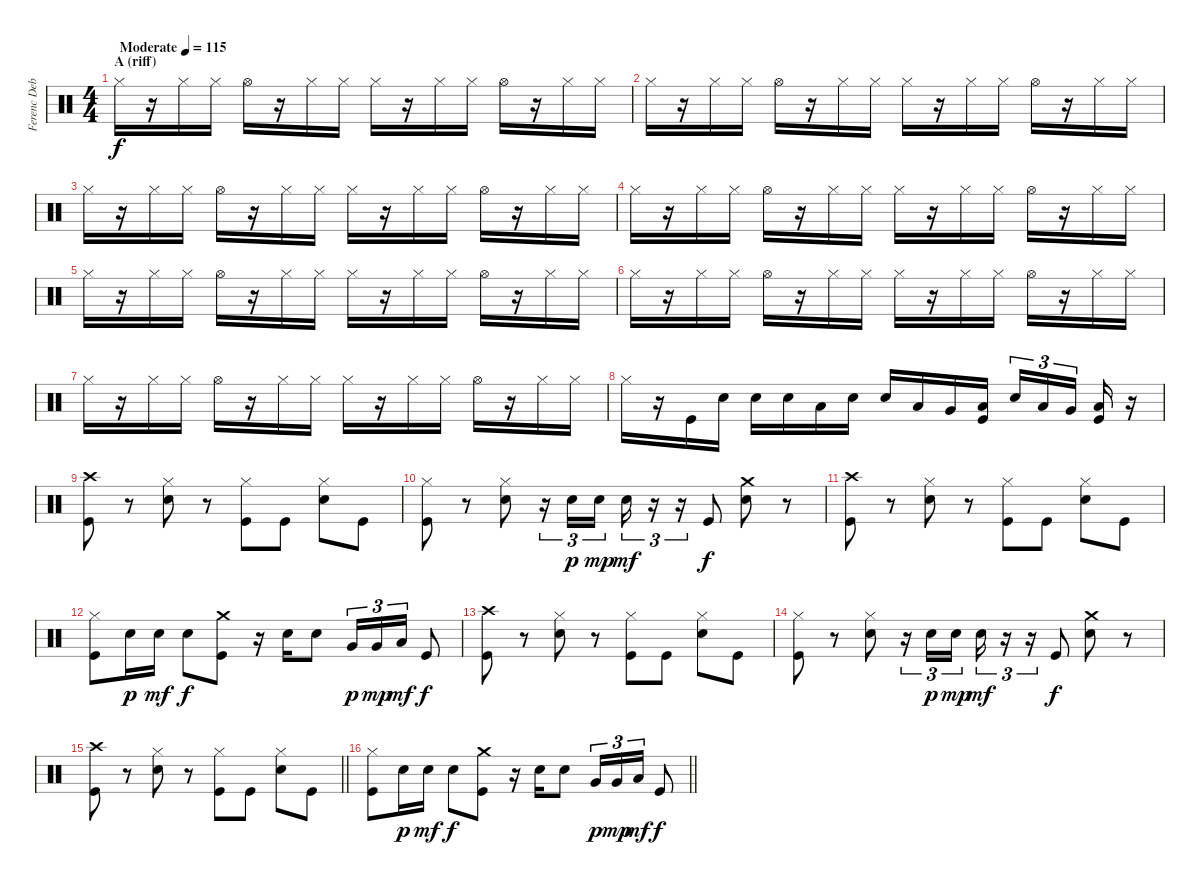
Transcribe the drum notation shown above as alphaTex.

\track ("Ferenc Debreceni \"Ciki\" (Drums)" "Ferenc Deb") {instrument percussion}
\staff {score}
\articulation defaults
\ts (4 4)
\section ("" "A (riff)")
\tempo (115 "Moderate")
\clef neutral
\ks c "Hi-Hat (closed)".16{dy f}
r.16 "Hi-Hat (closed)".16 "Hi-Hat (closed)".16 "Hi-Hat (open)".16 r.16 "Hi-Hat (closed)".16 "Hi-Hat (closed)".16 "Hi-Hat (closed)".16 r.16 "Hi-Hat (closed)".16 "Hi-Hat (closed)".16 "Hi-Hat (open)".16 r.16 "Hi-Hat (closed)".16 "Hi-Hat (closed)".16 |
"Hi-Hat (closed)".16 r.16 "Hi-Hat (closed)".16 "Hi-Hat (closed)".16 "Hi-Hat (open)".16 r.16 "Hi-Hat (closed)".16 "Hi-Hat (closed)".16 "Hi-Hat (closed)".16 r.16 "Hi-Hat (closed)".16 "Hi-Hat (closed)".16 "Hi-Hat (open)".16 r.16 "Hi-Hat (closed)".16 "Hi-Hat (closed)".16 |
"Hi-Hat (closed)".16 r.16 "Hi-Hat (closed)".16 "Hi-Hat (closed)".16 "Hi-Hat (open)".16 r.16 "Hi-Hat (closed)".16 "Hi-Hat (closed)".16 "Hi-Hat (closed)".16 r.16 "Hi-Hat (closed)".16 "Hi-Hat (closed)".16 "Hi-Hat (open)".16 r.16 "Hi-Hat (closed)".16 "Hi-Hat (closed)".16 |
"Hi-Hat (closed)".16 r.16 "Hi-Hat (closed)".16 "Hi-Hat (closed)".16 "Hi-Hat (open)".16 r.16 "Hi-Hat (closed)".16 "Hi-Hat (closed)".16 "Hi-Hat (closed)".16 r.16 "Hi-Hat (closed)".16 "Hi-Hat (closed)".16 "Hi-Hat (open)".16 r.16 "Hi-Hat (closed)".16 "Hi-Hat (closed)".16 |
"Hi-Hat (closed)".16 r.16 "Hi-Hat (closed)".16 "Hi-Hat (closed)".16 "Hi-Hat (open)".16 r.16 "Hi-Hat (closed)".16 "Hi-Hat (closed)".16 "Hi-Hat (closed)".16 r.16 "Hi-Hat (closed)".16 "Hi-Hat (closed)".16 "Hi-Hat (open)".16 r.16 "Hi-Hat (closed)".16 "Hi-Hat (closed)".16 |
"Hi-Hat (closed)".16 r.16 "Hi-Hat (closed)".16 "Hi-Hat (closed)".16 "Hi-Hat (open)".16 r.16 "Hi-Hat (closed)".16 "Hi-Hat (closed)".16 "Hi-Hat (closed)".16 r.16 "Hi-Hat (closed)".16 "Hi-Hat (closed)".16 "Hi-Hat (open)".16 r.16 "Hi-Hat (closed)".16 "Hi-Hat (closed)".16 |
"Hi-Hat (closed)".16 r.16 "Hi-Hat (closed)".16 "Hi-Hat (closed)".16 "Hi-Hat (open)".16 r.16 "Hi-Hat (closed)".16 "Hi-Hat (closed)".16 "Hi-Hat (closed)".16 r.16 "Hi-Hat (closed)".16 "Hi-Hat (closed)".16 "Hi-Hat (open)".16 r.16 "Hi-Hat (closed)".16 "Hi-Hat (closed)".16 |
"Hi-Hat (closed)".16 r.16 "Kick (hit)".16 "Electric Snare (hit)".16 "Electric Snare (hit)".16 "Electric Snare (hit)".16 "Low Tom (hit)".16 "Electric Snare (hit)".16 "Electric Snare (hit)".16 "Low Tom (hit)".16 "Very Low Tom (hit)".16 ("Low Floor Tom (hit)" "Kick (hit)").16 "Electric Snare (hit)".16{tu (3 2)} "Low Tom (hit)".16{tu (3 2)} "Very Low Tom (hit)".16{tu (3 2) beam splitsecondary} ("Low Floor Tom (hit)" "Kick (hit)").16 r.16 |
("Crash high (hit)" "Kick (hit)").8 r.8 ("Hi-Hat (closed)" "Electric Snare (hit)").8 r.8 ("Hi-Hat (closed)" "Kick (hit)").8 "Kick (hit)".8 ("Hi-Hat (closed)" "Electric Snare (hit)").8 "Kick (hit)".8 |
("Hi-Hat (closed)" "Kick (hit)").8 r.8 ("Hi-Hat (closed)" "Electric Snare (hit)").8 r.16{tu (3 2)} "Electric Snare (hit)".16{tu (3 2) dy p} "Electric Snare (hit)".16{tu (3 2) dy mp} "Electric Snare (hit)".16{tu (3 2) dy mf} r.16{tu (3 2)} r.16{tu (3 2)} "Kick (hit)".8{dy f} ("Crash medium (hit)" "Electric Snare (hit)").8 r.8 |
("Crash high (hit)" "Kick (hit)").8 r.8 ("Hi-Hat (closed)" "Electric Snare (hit)").8 r.8 ("Hi-Hat (closed)" "Kick (hit)").8 "Kick (hit)".8 ("Hi-Hat (closed)" "Electric Snare (hit)").8 "Kick (hit)".8 |
("Hi-Hat (closed)" "Kick (hit)").8 "Electric Snare (hit)".16{dy p} "Electric Snare (hit)".16{dy mf} "Electric Snare (hit)".8{dy f} ("Crash medium (hit)" "Kick (hit)").8 r.16 "Electric Snare (hit)".16 "Electric Snare (hit)".8 "Very Low Tom (hit)".16{tu (3 2) dy p} "Very Low Tom (hit)".16{tu (3 2) dy mp} "Low Floor Tom (hit)".16{tu (3 2) dy mf} "Kick (hit)".8{dy f} |
("Crash high (hit)" "Kick (hit)").8 r.8 ("Hi-Hat (closed)" "Electric Snare (hit)").8 r.8 ("Hi-Hat (closed)" "Kick (hit)").8 "Kick (hit)".8 ("Hi-Hat (closed)" "Electric Snare (hit)").8 "Kick (hit)".8 |
("Hi-Hat (closed)" "Kick (hit)").8 r.8 ("Hi-Hat (closed)" "Electric Snare (hit)").8 r.16{tu (3 2)} "Electric Snare (hit)".16{tu (3 2) dy p} "Electric Snare (hit)".16{tu (3 2) dy mp} "Electric Snare (hit)".16{tu (3 2) dy mf} r.16{tu (3 2)} r.16{tu (3 2)} "Kick (hit)".8{dy f} ("Crash medium (hit)" "Electric Snare (hit)").8 r.8 |
\barLineRight lightlight
("Crash high (hit)" "Kick (hit)").8 r.8 ("Hi-Hat (closed)" "Electric Snare (hit)").8 r.8 ("Hi-Hat (closed)" "Kick (hit)").8 "Kick (hit)".8 ("Hi-Hat (closed)" "Electric Snare (hit)").8 "Kick (hit)".8 |
\section ("" "")
\barLineRight lightlight
("Hi-Hat (closed)" "Kick (hit)").8 "Electric Snare (hit)".16{dy p} "Electric Snare (hit)".16{dy mf} "Electric Snare (hit)".8{dy f} ("Crash medium (hit)" "Kick (hit)").8 r.16 "Electric Snare (hit)".16 "Electric Snare (hit)".8 "Very Low Tom (hit)".16{tu (3 2) dy p} "Very Low Tom (hit)".16{tu (3 2) dy mp} "Low Floor Tom (hit)".16{tu (3 2) dy mf} "Kick (hit)".8{dy f}
